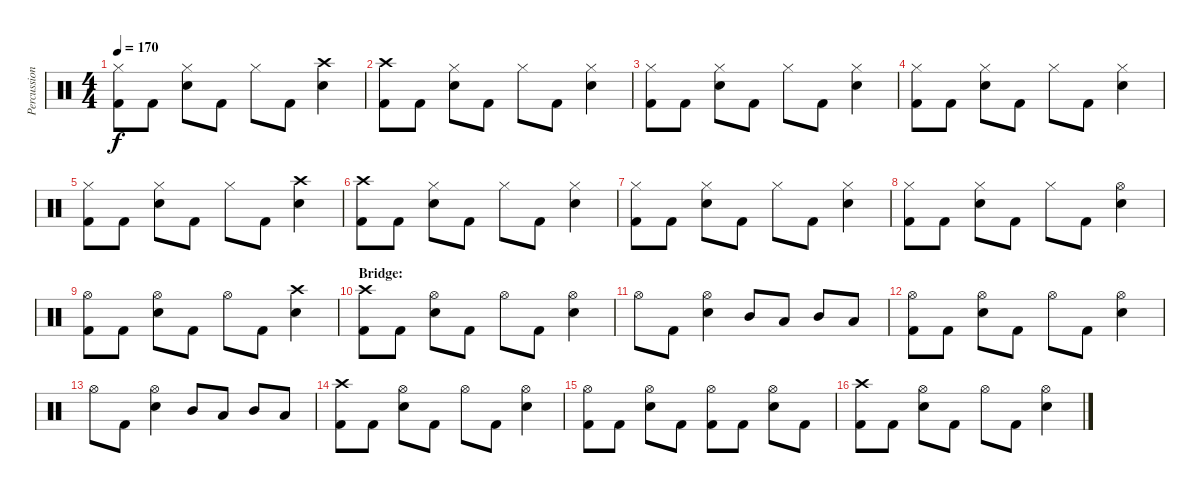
\track ("Percussion" "Percussion") {instrument percussion}
\staff {score}
\articulation defaults
\ts (4 4)
\tempo 170
\clef neutral
\ks c
("Hi-Hat (closed)" "Kick (hit) 2").8{dy f} "Kick (hit) 2".8 ("Hi-Hat (closed)" "Snare (hit) 2").8 "Kick (hit) 2".8 "Hi-Hat (closed)".8 "Kick (hit) 2".8 ("Crash high (hit)" "Snare (hit) 2").4 |
("Crash high (hit)" "Kick (hit) 2").8 "Kick (hit) 2".8 ("Hi-Hat (closed)" "Snare (hit) 2").8 "Kick (hit) 2".8 "Hi-Hat (closed)".8 "Kick (hit) 2".8 ("Hi-Hat (closed)" "Snare (hit) 2").4 |
("Hi-Hat (closed)" "Kick (hit) 2").8 "Kick (hit) 2".8 ("Hi-Hat (closed)" "Snare (hit) 2").8 "Kick (hit) 2".8 "Hi-Hat (closed)".8 "Kick (hit) 2".8 ("Hi-Hat (closed)" "Snare (hit) 2").4 |
("Hi-Hat (closed)" "Kick (hit) 2").8 "Kick (hit) 2".8 ("Hi-Hat (closed)" "Snare (hit) 2").8 "Kick (hit) 2".8 "Hi-Hat (closed)".8 "Kick (hit) 2".8 ("Hi-Hat (closed)" "Snare (hit) 2").4 |
("Hi-Hat (closed)" "Kick (hit) 2").8 "Kick (hit) 2".8 ("Hi-Hat (closed)" "Snare (hit) 2").8 "Kick (hit) 2".8 "Hi-Hat (closed)".8 "Kick (hit) 2".8 ("Crash high (hit)" "Snare (hit) 2").4 |
("Crash high (hit)" "Kick (hit) 2").8 "Kick (hit) 2".8 ("Hi-Hat (closed)" "Snare (hit) 2").8 "Kick (hit) 2".8 "Hi-Hat (closed)".8 "Kick (hit) 2".8 ("Hi-Hat (closed)" "Snare (hit) 2").4 |
("Hi-Hat (closed)" "Kick (hit) 2").8 "Kick (hit) 2".8 ("Hi-Hat (closed)" "Snare (hit) 2").8 "Kick (hit) 2".8 "Hi-Hat (closed)".8 "Kick (hit) 2".8 ("Hi-Hat (closed)" "Snare (hit) 2").4 |
("Hi-Hat (closed)" "Kick (hit) 2").8 "Kick (hit) 2".8 ("Hi-Hat (closed)" "Snare (hit) 2").8 "Kick (hit) 2".8 "Hi-Hat (closed)".8 "Kick (hit) 2".8 ("Hi-Hat (open)" "Snare (hit) 2").4 |
("Hi-Hat (open)" "Kick (hit) 2").8 "Kick (hit) 2".8 ("Hi-Hat (open)" "Snare (hit) 2").8 "Kick (hit) 2".8 "Hi-Hat (open)".8 "Kick (hit) 2".8 ("Crash high (hit)" "Snare (hit) 2").4 |
\section ("" "Bridge:")
("Crash high (hit)" "Kick (hit) 2").8 "Kick (hit) 2".8 ("Hi-Hat (open)" "Snare (hit) 2").8 "Kick (hit) 2".8 "Hi-Hat (open)".8 "Kick (hit) 2".8 ("Hi-Hat (open)" "Snare (hit) 2").4 |
"Hi-Hat (open)".8 "Kick (hit) 2".8 ("Hi-Hat (open)" "Snare (hit) 2").4 "Mid Tom (hit)".8 "Low Tom (hit)".8 "Mid Tom (hit)".8 "Low Tom (hit)".8 |
("Hi-Hat (open)" "Kick (hit) 2").8 "Kick (hit) 2".8 ("Hi-Hat (open)" "Snare (hit) 2").8 "Kick (hit) 2".8 "Hi-Hat (open)".8 "Kick (hit) 2".8 ("Hi-Hat (open)" "Snare (hit) 2").4 |
"Hi-Hat (open)".8 "Kick (hit) 2".8 ("Hi-Hat (open)" "Snare (hit) 2").4 "Mid Tom (hit)".8 "Low Tom (hit)".8 "Mid Tom (hit)".8 "Low Tom (hit)".8 |
("Crash high (hit)" "Kick (hit) 2").8 "Kick (hit) 2".8 ("Hi-Hat (open)" "Snare (hit) 2").8 "Kick (hit) 2".8 "Hi-Hat (open)".8 "Kick (hit) 2".8 ("Hi-Hat (open)" "Snare (hit) 2").4 |
("Hi-Hat (open)" "Kick (hit) 2").8 "Kick (hit) 2".8 ("Hi-Hat (open)" "Snare (hit) 2").8 "Kick (hit) 2".8 ("Hi-Hat (open)" "Kick (hit) 2").8 "Kick (hit) 2".8 ("Hi-Hat (open)" "Snare (hit) 2").8 "Kick (hit) 2".8 |
("Crash high (hit)" "Kick (hit) 2").8 "Kick (hit) 2".8 ("Hi-Hat (open)" "Snare (hit) 2").8 "Kick (hit) 2".8 "Hi-Hat (open)".8 "Kick (hit) 2".8 ("Hi-Hat (open)" "Snare (hit) 2").4
